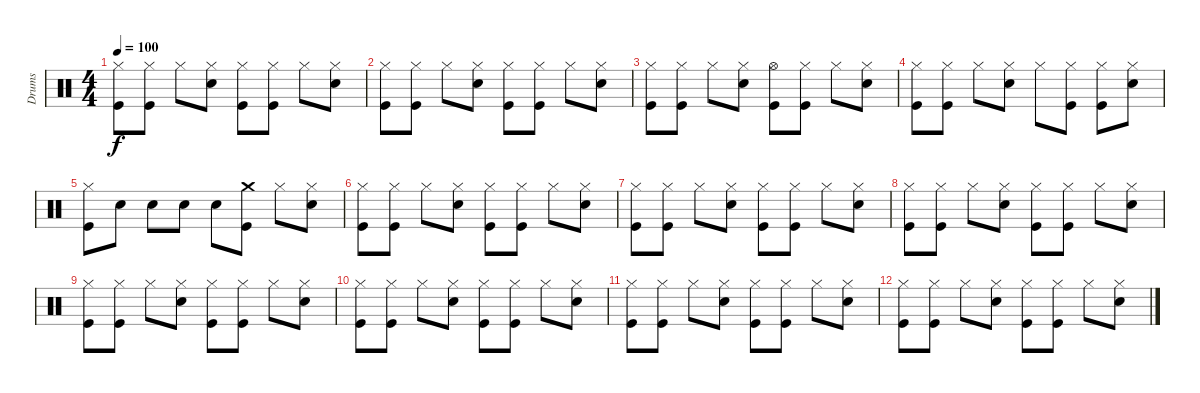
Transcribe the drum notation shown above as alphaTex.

\track ("Drums" "Drums") {instrument percussion}
\staff {score}
\articulation defaults
\ts (4 4)
\tempo 100
\clef neutral
\ks c
("Hi-Hat (closed)" "Kick (hit)").8{dy f} ("Hi-Hat (closed)" "Kick (hit)").8 "Hi-Hat (closed)".8 ("Hi-Hat (closed)" "Snare (hit) 2").8 ("Hi-Hat (closed)" "Kick (hit)").8 ("Hi-Hat (closed)" "Kick (hit)").8 "Hi-Hat (closed)".8 ("Hi-Hat (closed)" "Snare (hit) 2").8 |
("Hi-Hat (closed)" "Kick (hit)").8 ("Hi-Hat (closed)" "Kick (hit)").8 "Hi-Hat (closed)".8 ("Hi-Hat (closed)" "Snare (hit) 2").8 ("Hi-Hat (closed)" "Kick (hit)").8 ("Hi-Hat (closed)" "Kick (hit)").8 "Hi-Hat (closed)".8 ("Hi-Hat (closed)" "Snare (hit) 2").8 |
("Hi-Hat (closed)" "Kick (hit)").8 ("Hi-Hat (closed)" "Kick (hit)").8 "Hi-Hat (closed)".8 ("Hi-Hat (closed)" "Snare (hit) 2").8 ("Hi-Hat (open)" "Kick (hit)").8 ("Hi-Hat (closed)" "Kick (hit)").8 "Hi-Hat (closed)".8 ("Hi-Hat (closed)" "Snare (hit) 2").8 |
("Hi-Hat (closed)" "Kick (hit)").8 ("Hi-Hat (closed)" "Kick (hit)").8 "Hi-Hat (closed)".8 ("Hi-Hat (closed)" "Snare (hit) 2").8 "Hi-Hat (closed)".8 ("Hi-Hat (closed)" "Kick (hit)").8 ("Hi-Hat (closed)" "Kick (hit)").8 ("Hi-Hat (closed)" "Snare (hit) 2").8 |
("Hi-Hat (closed)" "Kick (hit)").8 "Snare (hit) 2".8 "Snare (hit) 2".8 "Snare (hit) 2".8 "Snare (hit) 2".8 ("Crash medium (hit)" "Kick (hit)").8 "Hi-Hat (closed)".8 ("Hi-Hat (closed)" "Snare (hit) 2").8 |
("Hi-Hat (closed)" "Kick (hit)").8{volume 13} ("Hi-Hat (closed)" "Kick (hit)").8 "Hi-Hat (closed)".8 ("Hi-Hat (closed)" "Snare (hit) 2").8 ("Hi-Hat (closed)" "Kick (hit)").8 ("Hi-Hat (closed)" "Kick (hit)").8 "Hi-Hat (closed)".8 ("Hi-Hat (closed)" "Snare (hit) 2").8 |
("Hi-Hat (closed)" "Kick (hit)").8{volume 11} ("Hi-Hat (closed)" "Kick (hit)").8 "Hi-Hat (closed)".8 ("Hi-Hat (closed)" "Snare (hit) 2").8 ("Hi-Hat (closed)" "Kick (hit)").8 ("Hi-Hat (closed)" "Kick (hit)").8 "Hi-Hat (closed)".8 ("Hi-Hat (closed)" "Snare (hit) 2").8 |
("Hi-Hat (closed)" "Kick (hit)").8{volume 9} ("Hi-Hat (closed)" "Kick (hit)").8 "Hi-Hat (closed)".8 ("Hi-Hat (closed)" "Snare (hit) 2").8 ("Hi-Hat (closed)" "Kick (hit)").8 ("Hi-Hat (closed)" "Kick (hit)").8 "Hi-Hat (closed)".8 ("Hi-Hat (closed)" "Snare (hit) 2").8 |
("Hi-Hat (closed)" "Kick (hit)").8{volume 7} ("Hi-Hat (closed)" "Kick (hit)").8 "Hi-Hat (closed)".8 ("Hi-Hat (closed)" "Snare (hit) 2").8 ("Hi-Hat (closed)" "Kick (hit)").8 ("Hi-Hat (closed)" "Kick (hit)").8 "Hi-Hat (closed)".8 ("Hi-Hat (closed)" "Snare (hit) 2").8 |
("Hi-Hat (closed)" "Kick (hit)").8{volume 5} ("Hi-Hat (closed)" "Kick (hit)").8 "Hi-Hat (closed)".8 ("Hi-Hat (closed)" "Snare (hit) 2").8 ("Hi-Hat (closed)" "Kick (hit)").8 ("Hi-Hat (closed)" "Kick (hit)").8 "Hi-Hat (closed)".8 ("Hi-Hat (closed)" "Snare (hit) 2").8 |
("Hi-Hat (closed)" "Kick (hit)").8{volume 3} ("Hi-Hat (closed)" "Kick (hit)").8 "Hi-Hat (closed)".8 ("Hi-Hat (closed)" "Snare (hit) 2").8 ("Hi-Hat (closed)" "Kick (hit)").8 ("Hi-Hat (closed)" "Kick (hit)").8 "Hi-Hat (closed)".8 ("Hi-Hat (closed)" "Snare (hit) 2").8 |
("Hi-Hat (closed)" "Kick (hit)").8{volume 1} ("Hi-Hat (closed)" "Kick (hit)").8 "Hi-Hat (closed)".8 ("Hi-Hat (closed)" "Snare (hit) 2").8 ("Hi-Hat (closed)" "Kick (hit)").8 ("Hi-Hat (closed)" "Kick (hit)").8 "Hi-Hat (closed)".8 ("Hi-Hat (closed)" "Snare (hit) 2").8
